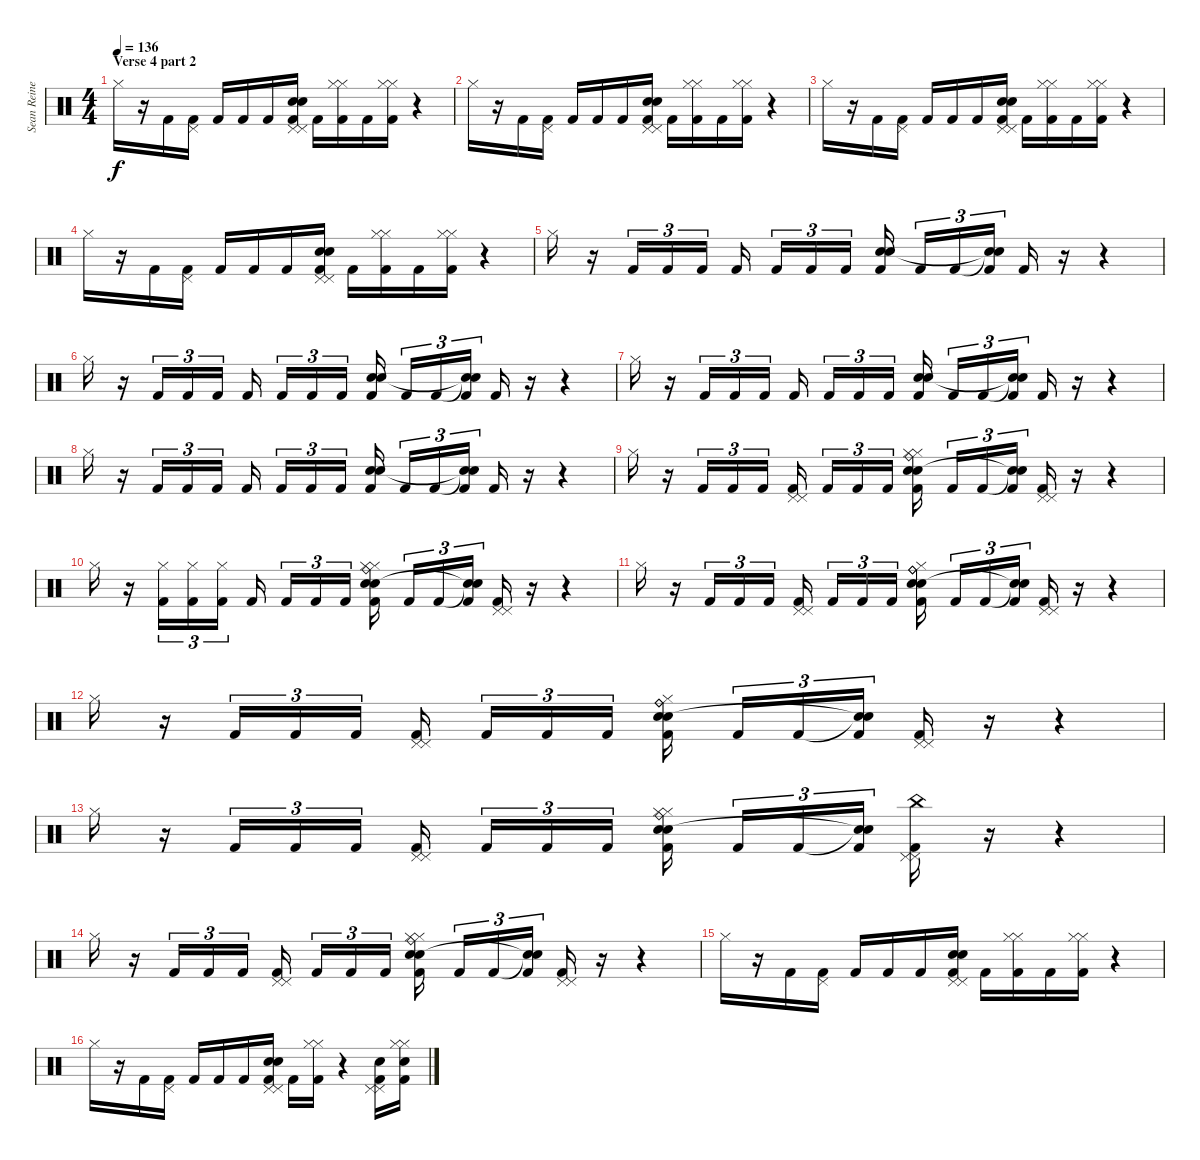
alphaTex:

\track ("Sean Reinert" "Sean Reine") {instrument percussion}
\staff {score}
\articulation defaults
\ts (4 4)
\section ("" "Verse 4 part 2")
\tempo 136
\clef neutral
\ks c "Hi-Hat (closed)".16{dy f}
r.16 "Kick (hit) 2".16 ("Pedal Hi-Hat (hit)" "Kick (hit) 2").16 "Kick (hit) 2".16 "Kick (hit) 2".16 "Kick (hit) 2".16 ("Electric Snare (hit)" "Snare (hit) 2" "Pedal Hi-Hat (hit)" "Pedal Hi-Hat (hit)" "Kick (hit) 2").16 "Kick (hit) 2".16 ("Hi-Hat (closed)" "Hi-Hat (closed)" "Kick (hit) 2").16 "Kick (hit) 2".16 ("Hi-Hat (closed)" "Hi-Hat (closed)" "Kick (hit) 2").16 r.4 |
"Hi-Hat (closed)".16 r.16 "Kick (hit) 2".16 ("Pedal Hi-Hat (hit)" "Kick (hit) 2").16 "Kick (hit) 2".16 "Kick (hit) 2".16 "Kick (hit) 2".16 ("Electric Snare (hit)" "Snare (hit) 2" "Pedal Hi-Hat (hit)" "Pedal Hi-Hat (hit)" "Kick (hit) 2").16 "Kick (hit) 2".16 ("Hi-Hat (closed)" "Hi-Hat (closed)" "Kick (hit) 2").16 "Kick (hit) 2".16 ("Hi-Hat (closed)" "Hi-Hat (closed)" "Kick (hit) 2").16 r.4 |
"Hi-Hat (closed)".16 r.16 "Kick (hit) 2".16 ("Pedal Hi-Hat (hit)" "Kick (hit) 2").16 "Kick (hit) 2".16 "Kick (hit) 2".16 "Kick (hit) 2".16 ("Electric Snare (hit)" "Snare (hit) 2" "Pedal Hi-Hat (hit)" "Pedal Hi-Hat (hit)" "Kick (hit) 2").16 "Kick (hit) 2".16 ("Hi-Hat (closed)" "Hi-Hat (closed)" "Kick (hit) 2").16 "Kick (hit) 2".16 ("Hi-Hat (closed)" "Hi-Hat (closed)" "Kick (hit) 2").16 r.4 |
"Hi-Hat (closed)".16 r.16 "Kick (hit) 2".16 ("Pedal Hi-Hat (hit)" "Kick (hit) 2").16 "Kick (hit) 2".16 "Kick (hit) 2".16 "Kick (hit) 2".16 ("Electric Snare (hit)" "Snare (hit) 2" "Pedal Hi-Hat (hit)" "Pedal Hi-Hat (hit)" "Kick (hit) 2").16 "Kick (hit) 2".16 ("Hi-Hat (closed)" "Hi-Hat (closed)" "Kick (hit) 2").16 "Kick (hit) 2".16 ("Hi-Hat (closed)" "Hi-Hat (closed)" "Kick (hit) 2").16 r.4 |
"Hi-Hat (closed)".16 r.16 "Kick (hit) 2".16{tu (3 2)} "Kick (hit) 2".16{tu (3 2)} "Kick (hit) 2".16{tu (3 2)} "Kick (hit) 2".16 "Kick (hit) 2".16{tu (3 2)} "Kick (hit) 2".16{tu (3 2)} "Kick (hit) 2".16{tu (3 2)} ("Electric Snare (hit)" "Snare (hit) 2" "Kick (hit) 2").16 "Kick (hit) 2".16{tu (3 2)} "Kick (hit) 2".16{tu (3 2)} ("Snare (hit)"{t} "Snare (hit)"{t} "Kick (hit) 2").16{tu (3 2)} "Kick (hit) 2".16 r.16 r.4 |
"Hi-Hat (closed)".16 r.16 "Kick (hit) 2".16{tu (3 2)} "Kick (hit) 2".16{tu (3 2)} "Kick (hit) 2".16{tu (3 2)} "Kick (hit) 2".16 "Kick (hit) 2".16{tu (3 2)} "Kick (hit) 2".16{tu (3 2)} "Kick (hit) 2".16{tu (3 2)} ("Electric Snare (hit)" "Snare (hit) 2" "Kick (hit) 2").16 "Kick (hit) 2".16{tu (3 2)} "Kick (hit) 2".16{tu (3 2)} ("Snare (hit)"{t} "Snare (hit)"{t} "Kick (hit) 2").16{tu (3 2)} "Kick (hit) 2".16 r.16 r.4 |
"Hi-Hat (closed)".16 r.16 "Kick (hit) 2".16{tu (3 2)} "Kick (hit) 2".16{tu (3 2)} "Kick (hit) 2".16{tu (3 2)} "Kick (hit) 2".16 "Kick (hit) 2".16{tu (3 2)} "Kick (hit) 2".16{tu (3 2)} "Kick (hit) 2".16{tu (3 2)} ("Electric Snare (hit)" "Snare (hit) 2" "Kick (hit) 2").16 "Kick (hit) 2".16{tu (3 2)} "Kick (hit) 2".16{tu (3 2)} ("Snare (hit)"{t} "Snare (hit)"{t} "Kick (hit) 2").16{tu (3 2)} "Kick (hit) 2".16 r.16 r.4 |
"Hi-Hat (closed)".16 r.16 "Kick (hit) 2".16{tu (3 2)} "Kick (hit) 2".16{tu (3 2)} "Kick (hit) 2".16{tu (3 2)} "Kick (hit) 2".16 "Kick (hit) 2".16{tu (3 2)} "Kick (hit) 2".16{tu (3 2)} "Kick (hit) 2".16{tu (3 2)} ("Electric Snare (hit)" "Snare (hit) 2" "Kick (hit) 2").16 "Kick (hit) 2".16{tu (3 2)} "Kick (hit) 2".16{tu (3 2)} ("Snare (hit)"{t} "Snare (hit)"{t} "Kick (hit) 2").16{tu (3 2)} "Kick (hit) 2".16 r.16 r.4 |
"Hi-Hat (closed)".16 r.16 "Kick (hit) 2".16{tu (3 2)} "Kick (hit) 2".16{tu (3 2)} "Kick (hit) 2".16{tu (3 2)} ("Pedal Hi-Hat (hit)" "Pedal Hi-Hat (hit)" "Kick (hit) 2").16 "Kick (hit) 2".16{tu (3 2)} "Kick (hit) 2".16{tu (3 2)} "Kick (hit) 2".16{tu (3 2)} ("Ride (bell)" "Electric Snare (hit)" "Snare (hit) 2" "Hi-Hat (closed)" "Hi-Hat (closed)" "Kick (hit) 2").16 "Kick (hit) 2".16{tu (3 2)} "Kick (hit) 2".16{tu (3 2)} ("Snare (hit)"{t} "Snare (hit)"{t} "Kick (hit) 2").16{tu (3 2)} ("Pedal Hi-Hat (hit)" "Pedal Hi-Hat (hit)" "Kick (hit) 2").16 r.16 r.4 |
"Hi-Hat (closed)".16 r.16 ("Hi-Hat (closed)" "Kick (hit) 2").16{tu (3 2)} ("Hi-Hat (closed)" "Kick (hit) 2").16{tu (3 2)} ("Hi-Hat (closed)" "Kick (hit) 2").16{tu (3 2)} "Kick (hit) 2".16 "Kick (hit) 2".16{tu (3 2)} "Kick (hit) 2".16{tu (3 2)} "Kick (hit) 2".16{tu (3 2)} ("Ride (bell)" "Electric Snare (hit)" "Snare (hit) 2" "Hi-Hat (closed)" "Hi-Hat (closed)" "Kick (hit) 2").16 "Kick (hit) 2".16{tu (3 2)} "Kick (hit) 2".16{tu (3 2)} ("Snare (hit)"{t} "Snare (hit)"{t} "Kick (hit) 2").16{tu (3 2)} ("Pedal Hi-Hat (hit)" "Pedal Hi-Hat (hit)" "Kick (hit) 2").16 r.16 r.4 |
"Hi-Hat (closed)".16 r.16 "Kick (hit) 2".16{tu (3 2)} "Kick (hit) 2".16{tu (3 2)} "Kick (hit) 2".16{tu (3 2)} ("Pedal Hi-Hat (hit)" "Pedal Hi-Hat (hit)" "Kick (hit) 2").16 "Kick (hit) 2".16{tu (3 2)} "Kick (hit) 2".16{tu (3 2)} "Kick (hit) 2".16{tu (3 2)} ("Ride (bell)" "Electric Snare (hit)" "Snare (hit) 2" "Ride (bell)" "Hi-Hat (closed)" "Kick (hit) 2").16 "Kick (hit) 2".16{tu (3 2)} "Kick (hit) 2".16{tu (3 2)} ("Snare (hit)"{t} "Snare (hit)"{t} "Kick (hit) 2").16{tu (3 2)} ("Pedal Hi-Hat (hit)" "Pedal Hi-Hat (hit)" "Kick (hit) 2").16 r.16 r.4 |
"Hi-Hat (closed)".16 r.16 "Kick (hit) 2".16{tu (3 2)} "Kick (hit) 2".16{tu (3 2)} "Kick (hit) 2".16{tu (3 2)} ("Pedal Hi-Hat (hit)" "Pedal Hi-Hat (hit)" "Kick (hit) 2").16 "Kick (hit) 2".16{tu (3 2)} "Kick (hit) 2".16{tu (3 2)} "Kick (hit) 2".16{tu (3 2)} ("Ride (bell)" "Electric Snare (hit)" "Snare (hit) 2" "Ride (bell)" "Hi-Hat (closed)" "Kick (hit) 2").16 "Kick (hit) 2".16{tu (3 2)} "Kick (hit) 2".16{tu (3 2)} ("Snare (hit)"{t} "Snare (hit)"{t} "Kick (hit) 2").16{tu (3 2)} ("Pedal Hi-Hat (hit)" "Pedal Hi-Hat (hit)" "Kick (hit) 2").16 r.16 r.4 |
"Hi-Hat (closed)".16 r.16 "Kick (hit) 2".16{tu (3 2)} "Kick (hit) 2".16{tu (3 2)} "Kick (hit) 2".16{tu (3 2)} ("Pedal Hi-Hat (hit)" "Pedal Hi-Hat (hit)" "Kick (hit) 2").16 "Kick (hit) 2".16{tu (3 2)} "Kick (hit) 2".16{tu (3 2)} "Kick (hit) 2".16{tu (3 2)} ("Ride (bell)" "Electric Snare (hit)" "Snare (hit) 2" "Hi-Hat (closed)" "Hi-Hat (closed)" "Kick (hit) 2").16 "Kick (hit) 2".16{tu (3 2)} "Kick (hit) 2".16{tu (3 2)} ("Snare (hit)"{t} "Snare (hit)"{t} "Kick (hit) 2").16{tu (3 2)} ("China (hit)" "Pedal Hi-Hat (hit)" "Pedal Hi-Hat (hit)" "Kick (hit) 2").16 r.16 r.4 |
"Hi-Hat (closed)".16 r.16 "Kick (hit) 2".16{tu (3 2)} "Kick (hit) 2".16{tu (3 2)} "Kick (hit) 2".16{tu (3 2)} ("Pedal Hi-Hat (hit)" "Pedal Hi-Hat (hit)" "Kick (hit) 2").16 "Kick (hit) 2".16{tu (3 2)} "Kick (hit) 2".16{tu (3 2)} "Kick (hit) 2".16{tu (3 2)} ("Ride (bell)" "Electric Snare (hit)" "Snare (hit) 2" "Hi-Hat (closed)" "Hi-Hat (closed)" "Kick (hit) 2").16 "Kick (hit) 2".16{tu (3 2)} "Kick (hit) 2".16{tu (3 2)} ("Snare (hit)"{t} "Snare (hit)"{t} "Kick (hit) 2").16{tu (3 2)} ("Pedal Hi-Hat (hit)" "Pedal Hi-Hat (hit)" "Kick (hit) 2").16 r.16 r.4 |
"Hi-Hat (closed)".16 r.16 "Kick (hit) 2".16 ("Pedal Hi-Hat (hit)" "Kick (hit) 2").16 "Kick (hit) 2".16 "Kick (hit) 2".16 "Kick (hit) 2".16 ("Electric Snare (hit)" "Snare (hit) 2" "Pedal Hi-Hat (hit)" "Pedal Hi-Hat (hit)" "Kick (hit) 2").16 "Kick (hit) 2".16 ("Hi-Hat (closed)" "Hi-Hat (closed)" "Kick (hit) 2").16 "Kick (hit) 2".16 ("Hi-Hat (closed)" "Hi-Hat (closed)" "Kick (hit) 2").16 r.4 |
"Hi-Hat (closed)".16 r.16 "Kick (hit) 2".16 ("Pedal Hi-Hat (hit)" "Kick (hit) 2").16 "Kick (hit) 2".16 "Kick (hit) 2".16 "Kick (hit) 2".16 ("Electric Snare (hit)" "Snare (hit) 2" "Pedal Hi-Hat (hit)" "Pedal Hi-Hat (hit)" "Kick (hit) 2").16 "Kick (hit) 2".16 ("Hi-Hat (closed)" "Hi-Hat (closed)" "Kick (hit) 2").16 r.4 ("Pedal Hi-Hat (hit)" "Pedal Hi-Hat (hit)" "Snare (hit) 2" "Kick (hit) 2").16 ("Hi-Hat (closed)" "Hi-Hat (closed)" "Snare (hit) 2" "Kick (hit) 2").16
